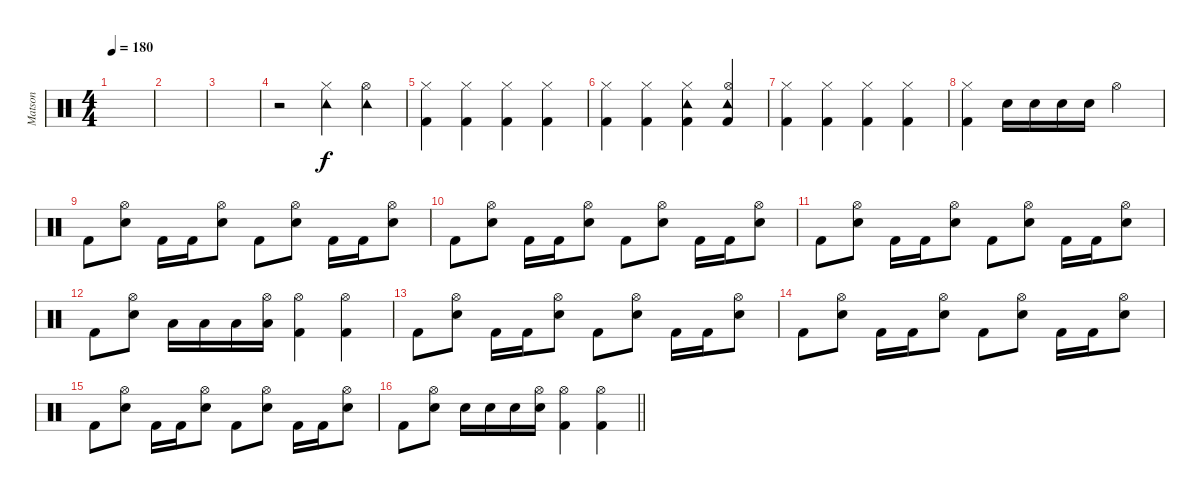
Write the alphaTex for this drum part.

\track ("Matson" "Matson") {instrument percussion}
\staff {score}
\articulation defaults
\ts (4 4)
\tempo 180
\clef neutral
\ks c
|
|
|
r.2 ("Hi-Hat (closed)" "Tambourine (hit)").4 ("Hi-Hat (open)" "Tambourine (hit)").4 |
("Hi-Hat (closed)" "Kick (hit) 2").4 ("Hi-Hat (closed)" "Kick (hit) 2").4 ("Hi-Hat (closed)" "Kick (hit) 2").4 ("Hi-Hat (closed)" "Kick (hit) 2").4 |
("Hi-Hat (closed)" "Kick (hit) 2").4 ("Hi-Hat (closed)" "Kick (hit) 2").4 ("Hi-Hat (closed)" "Tambourine (hit)" "Kick (hit) 2").4 ("Hi-Hat (open)" "Tambourine (hit)" "Kick (hit) 2").4 |
("Hi-Hat (closed)" "Kick (hit) 2").4 ("Hi-Hat (closed)" "Kick (hit) 2").4 ("Hi-Hat (closed)" "Kick (hit) 2").4 ("Hi-Hat (closed)" "Kick (hit) 2").4 |
("Hi-Hat (closed)" "Kick (hit) 2").4 "Snare (hit) 2".16 "Snare (hit) 2".16 "Snare (hit) 2".16 "Snare (hit) 2".16 "Hi-Hat (open)".2 |
\section ("" "")
"Kick (hit) 2".8 ("Hi-Hat (open)" "Snare (hit) 2").8 "Kick (hit) 2".16 "Kick (hit) 2".16 ("Hi-Hat (open)" "Snare (hit) 2").8 "Kick (hit) 2".8 ("Hi-Hat (open)" "Snare (hit) 2").8 "Kick (hit) 2".16 "Kick (hit) 2".16 ("Hi-Hat (open)" "Snare (hit) 2").8 |
"Kick (hit) 2".8 ("Hi-Hat (open)" "Snare (hit) 2").8 "Kick (hit) 2".16 "Kick (hit) 2".16 ("Hi-Hat (open)" "Snare (hit) 2").8 "Kick (hit) 2".8 ("Hi-Hat (open)" "Snare (hit) 2").8 "Kick (hit) 2".16 "Kick (hit) 2".16 ("Hi-Hat (open)" "Snare (hit) 2").8 |
"Kick (hit) 2".8 ("Hi-Hat (open)" "Snare (hit) 2").8 "Kick (hit) 2".16 "Kick (hit) 2".16 ("Hi-Hat (open)" "Snare (hit) 2").8 "Kick (hit) 2".8 ("Hi-Hat (open)" "Snare (hit) 2").8 "Kick (hit) 2".16 "Kick (hit) 2".16 ("Hi-Hat (open)" "Snare (hit) 2").8 |
"Kick (hit) 2".8 ("Hi-Hat (open)" "Snare (hit) 2").8 "Low Tom (hit)".16 "Low Tom (hit)".16 "Low Tom (hit)".16 ("Hi-Hat (open)" "Low Tom (hit)").16 ("Hi-Hat (open)" "Kick (hit) 2").4 ("Hi-Hat (open)" "Kick (hit) 2").4 |
"Kick (hit) 2".8 ("Hi-Hat (open)" "Snare (hit) 2").8 "Kick (hit) 2".16 "Kick (hit) 2".16 ("Hi-Hat (open)" "Snare (hit) 2").8 "Kick (hit) 2".8 ("Hi-Hat (open)" "Snare (hit) 2").8 "Kick (hit) 2".16 "Kick (hit) 2".16 ("Hi-Hat (open)" "Snare (hit) 2").8 |
"Kick (hit) 2".8 ("Hi-Hat (open)" "Snare (hit) 2").8 "Kick (hit) 2".16 "Kick (hit) 2".16 ("Hi-Hat (open)" "Snare (hit) 2").8 "Kick (hit) 2".8 ("Hi-Hat (open)" "Snare (hit) 2").8 "Kick (hit) 2".16 "Kick (hit) 2".16 ("Hi-Hat (open)" "Snare (hit) 2").8 |
"Kick (hit) 2".8 ("Hi-Hat (open)" "Snare (hit) 2").8 "Kick (hit) 2".16 "Kick (hit) 2".16 ("Hi-Hat (open)" "Snare (hit) 2").8 "Kick (hit) 2".8 ("Hi-Hat (open)" "Snare (hit) 2").8 "Kick (hit) 2".16 "Kick (hit) 2".16 ("Hi-Hat (open)" "Snare (hit) 2").8 |
\barLineRight lightlight "Kick (hit) 2".8
("Hi-Hat (open)" "Snare (hit) 2").8 "Snare (hit) 2".16 "Snare (hit) 2".16 "Snare (hit) 2".16 ("Hi-Hat (open)" "Snare (hit) 2").16 ("Hi-Hat (open)" "Kick (hit) 2").4 ("Hi-Hat (open)" "Kick (hit) 2").4
